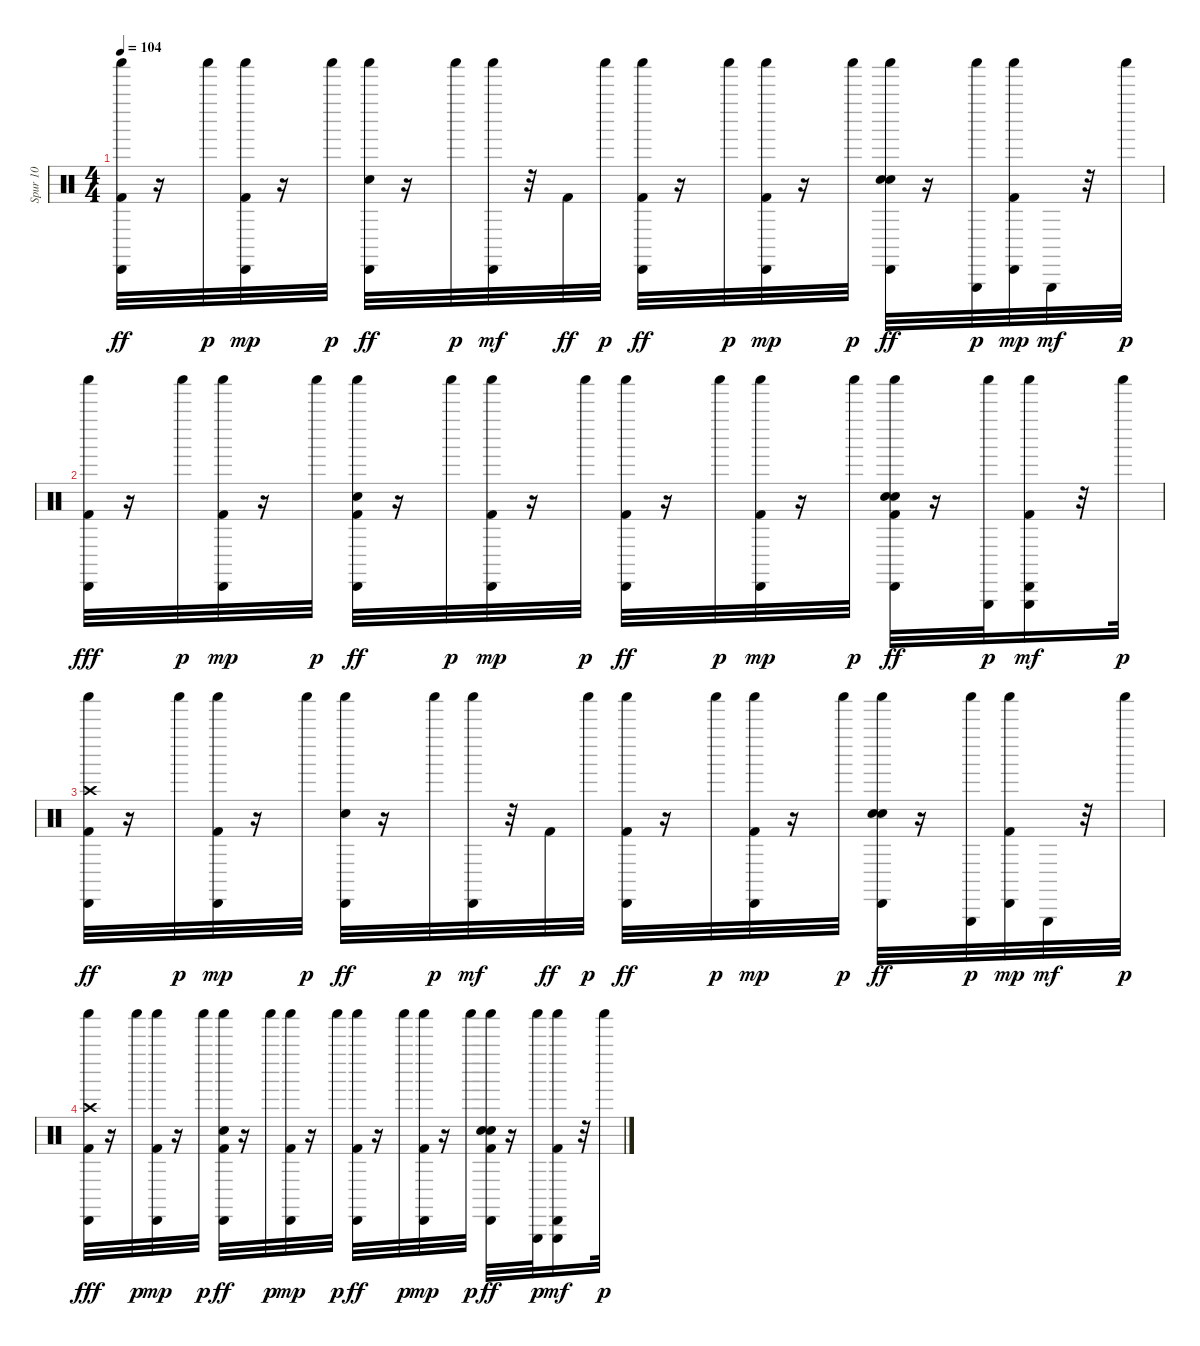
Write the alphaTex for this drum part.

\track ("Spur 10" "Spur 10") {instrument percussion}
\staff {score}
\articulation defaults
\ts (4 4)
\tempo 104
\clef neutral
\ks c
("Kick (hit) 2" "Cabasa (hit)" "Shaker (hit)").32{dy ff} r.16 "Shaker (hit)".32{dy p} ("Kick (hit) 2" "Cabasa (hit)" "Shaker (hit)").32{dy mp} r.16 "Shaker (hit)".32{dy p} ("Snare (hit) 2" "Cabasa (hit)" "Shaker (hit)").32{dy ff} r.16 "Shaker (hit)".32{dy p} ("Cabasa (hit)" "Shaker (hit)").32{dy mf} r.32 "Kick (hit) 2".32{dy ff} "Shaker (hit)".32{dy p} ("Kick (hit) 2" "Cabasa (hit)" "Shaker (hit)").32{dy ff} r.16 "Shaker (hit)".32{dy p} ("Kick (hit) 2" "Cabasa (hit)" "Shaker (hit)").32{dy mp} r.16 "Shaker (hit)".32{dy p} ("Snare (hit) 2" "Hand Clap (hit)" "Cabasa (hit)" "Shaker (hit)").32{dy ff} r.16 ("Shaker (hit)" "Triangle (hit)").32{dy p} ("Kick (hit) 2" "Cabasa (hit)" "Shaker (hit)").32{dy mp} "Triangle (hit)".32{dy mf} r.32 "Shaker (hit)".32{dy p} |
("Kick (hit) 2" "Cabasa (hit)" "Shaker (hit)").32{dy fff} r.16 "Shaker (hit)".32{dy p} ("Kick (hit) 2" "Cabasa (hit)" "Shaker (hit)").32{dy mp} r.16 "Shaker (hit)".32{dy p} ("Kick (hit) 2" "Snare (hit) 2" "Cabasa (hit)" "Shaker (hit)").32{dy ff} r.16 "Shaker (hit)".32{dy p} ("Kick (hit) 2" "Cabasa (hit)" "Shaker (hit)").32{dy mp} r.16 "Shaker (hit)".32{dy p} ("Kick (hit) 2" "Cabasa (hit)" "Shaker (hit)").32{dy ff} r.16 "Shaker (hit)".32{dy p} ("Kick (hit) 2" "Cabasa (hit)" "Shaker (hit)").32{dy mp} r.16 "Shaker (hit)".32{dy p} ("Kick (hit) 2" "Snare (hit) 2" "Hand Clap (hit)" "Cabasa (hit)" "Shaker (hit)").32{dy ff} r.16 ("Triangle (hit)" "Shaker (hit)").32{dy p} ("Kick (hit) 2" "Cabasa (hit)" "Shaker (hit)" "Triangle (hit)").16{dy mf} r.32 "Shaker (hit)".32{dy p} |
("Crash high (hit)" "Kick (hit) 2" "Cabasa (hit)" "Shaker (hit)").32{dy ff} r.16 "Shaker (hit)".32{dy p} ("Kick (hit) 2" "Cabasa (hit)" "Shaker (hit)").32{dy mp} r.16 "Shaker (hit)".32{dy p} ("Snare (hit) 2" "Cabasa (hit)" "Shaker (hit)").32{dy ff} r.16 "Shaker (hit)".32{dy p} ("Cabasa (hit)" "Shaker (hit)").32{dy mf} r.32 "Kick (hit) 2".32{dy ff} "Shaker (hit)".32{dy p} ("Kick (hit) 2" "Cabasa (hit)" "Shaker (hit)").32{dy ff} r.16 "Shaker (hit)".32{dy p} ("Kick (hit) 2" "Cabasa (hit)" "Shaker (hit)").32{dy mp} r.16 "Shaker (hit)".32{dy p} ("Snare (hit) 2" "Hand Clap (hit)" "Cabasa (hit)" "Shaker (hit)").32{dy ff} r.16 ("Shaker (hit)" "Triangle (hit)").32{dy p} ("Kick (hit) 2" "Cabasa (hit)" "Shaker (hit)").32{dy mp} "Triangle (hit)".32{dy mf} r.32 "Shaker (hit)".32{dy p} |
("Crash high (hit)" "Kick (hit) 2" "Cabasa (hit)" "Shaker (hit)").32{dy fff} r.16 "Shaker (hit)".32{dy p} ("Kick (hit) 2" "Cabasa (hit)" "Shaker (hit)").32{dy mp} r.16 "Shaker (hit)".32{dy p} ("Kick (hit) 2" "Snare (hit) 2" "Cabasa (hit)" "Shaker (hit)").32{dy ff} r.16 "Shaker (hit)".32{dy p} ("Kick (hit) 2" "Cabasa (hit)" "Shaker (hit)").32{dy mp} r.16 "Shaker (hit)".32{dy p} ("Kick (hit) 2" "Cabasa (hit)" "Shaker (hit)").32{dy ff} r.16 "Shaker (hit)".32{dy p} ("Kick (hit) 2" "Cabasa (hit)" "Shaker (hit)").32{dy mp} r.16 "Shaker (hit)".32{dy p} ("Kick (hit) 2" "Snare (hit) 2" "Hand Clap (hit)" "Cabasa (hit)" "Shaker (hit)").32{dy ff} r.16 ("Triangle (hit)" "Shaker (hit)").32{dy p} ("Kick (hit) 2" "Cabasa (hit)" "Shaker (hit)" "Triangle (hit)").16{dy mf} r.32 "Shaker (hit)".32{dy p}
